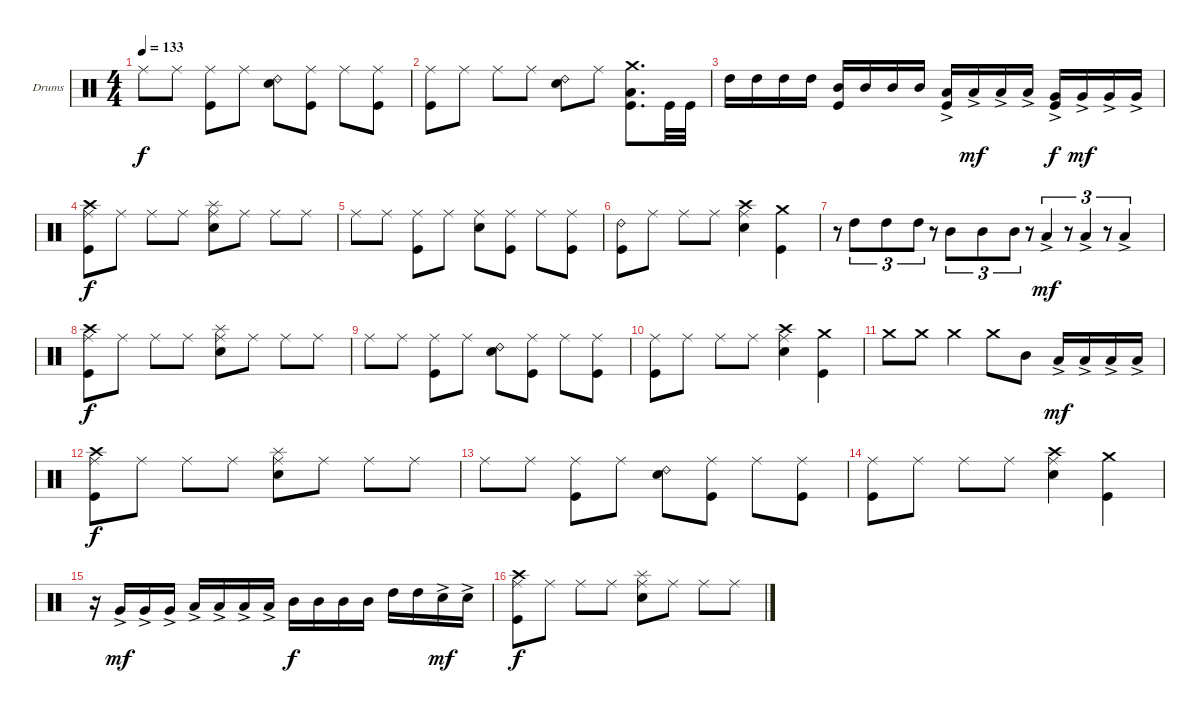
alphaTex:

\bracketExtendMode groupsimilarinstruments
\firstSystemTrackNameOrientation horizontal
\otherSystemsTrackNameOrientation horizontal
\track ("Drumkit" "Drums") {instrument percussion}
\staff {score}
\articulation defaults
\ts (4 4)
\tempo 133
\clef neutral
\ks c "Ride (middle)".8{dy f} "Ride (middle)".8
("Ride (middle)" "Kick (hit)").8 "Ride (middle)".8 ("Ride (bell) 2" "Snare (hit) 2").8 ("Ride (middle)" "Kick (hit)").8 "Ride (middle)".8 ("Ride (middle)" "Kick (hit)").8 |
("Ride (middle)" "Kick (hit)").8 "Ride (middle)".8 "Ride (middle)".8 "Ride (middle)".8 ("Ride (bell) 2" "Snare (hit) 2").8 "Ride (middle)".8 ("Kick (hit)" "Low Tom (hit)" "Crash medium (hit)").8{d} "Kick (hit)".32 "Kick (hit)".32 |
"High Tom (hit)".16 "High Tom (hit)".16 "High Tom (hit)".16 "High Tom (hit)".16 ("Mid Tom (hit)" "Kick (hit)").16 "Mid Tom (hit)".16 "Mid Tom (hit)".16 "Mid Tom (hit)".16 ("Low Tom (hit)"{ac} "Kick (hit)").16 "Low Tom (hit)"{ac}.16{dy mf} "Low Tom (hit)"{ac}.16 "Low Tom (hit)"{ac}.16 ("Very Low Tom (hit)"{ac} "Kick (hit)").16{dy f} "Very Low Tom (hit)"{ac}.16{dy mf} "Very Low Tom (hit)"{ac}.16 "Very Low Tom (hit)"{ac}.16 |
("Crash high (hit)" "Ride (middle)" "Kick (hit)").8{dy f} "Ride (middle)".8 "Ride (middle)".8 "Ride (middle)".8 ("Ride (middle)" "Splash (hit)" "Snare (hit) 2").8 "Ride (middle)".8 "Ride (middle)".8 "Ride (middle)".8 |
"Ride (middle)".8 "Ride (middle)".8 ("Ride (middle)" "Kick (hit)").8 "Ride (middle)".8 ("Ride (middle)" "Snare (hit) 2").8 ("Ride (middle)" "Kick (hit)").8 "Ride (middle)".8 ("Ride (middle)" "Kick (hit)").8 |
("Ride (bell) 2" "Kick (hit)").8 "Ride (middle)".8 "Ride (middle)".8 "Ride (middle)".8 ("Ride (middle)" "Snare (hit) 2" "Crash high (hit)").4 ("Kick (hit)" "Crash medium (hit)").4 |
r.8{gr} "High Tom (hit)".8{tu (3 2)} "High Tom (hit)".8{tu (3 2)} "High Tom (hit)".8{tu (3 2)} r.8{gr} "Mid Tom (hit)".8{tu (3 2)} "Mid Tom (hit)".8{tu (3 2)} "Mid Tom (hit)".8{tu (3 2)} r.8{gr} "Low Tom (hit)"{ac}.4{tu (3 2) dy mf} r.8{gr} "Low Tom (hit)"{ac}.4{tu (3 2)} r.8{gr} "Low Tom (hit)"{ac}.4{tu (3 2)} |
("Crash high (hit)" "Ride (middle)" "Kick (hit)").8{dy f} "Ride (middle)".8 "Ride (middle)".8 "Ride (middle)".8 ("Ride (middle)" "Splash (hit)" "Snare (hit) 2").8 "Ride (middle)".8 "Ride (middle)".8 "Ride (middle)".8 |
"Ride (middle)".8 "Ride (middle)".8 ("Ride (middle)" "Kick (hit)").8 "Ride (middle)".8 ("Ride (bell) 2" "Snare (hit) 2").8 ("Ride (middle)" "Kick (hit)").8 "Ride (middle)".8 ("Ride (middle)" "Kick (hit)").8 |
("Ride (middle)" "Kick (hit)").8 "Ride (middle)".8 "Ride (middle)".8 "Ride (middle)".8 ("Snare (hit) 2" "Ride (middle)" "Crash high (hit)").4 ("Kick (hit)" "Crash medium (hit)").4 |
"Crash medium (hit)".8 "Crash medium (hit)".8 "Crash medium (hit)".4 "Crash medium (hit)".8 "Mid Tom (hit)".8 "Low Tom (hit)"{ac}.16{dy mf} "Low Tom (hit)"{ac}.16 "Low Tom (hit)"{ac}.16 "Low Tom (hit)"{ac}.16 |
("Crash high (hit)" "Ride (middle)" "Kick (hit)").8{dy f} "Ride (middle)".8 "Ride (middle)".8 "Ride (middle)".8 ("Ride (middle)" "Splash (hit)" "Snare (hit) 2").8 "Ride (middle)".8 "Ride (middle)".8 "Ride (middle)".8 |
"Ride (middle)".8 "Ride (middle)".8 ("Ride (middle)" "Kick (hit)").8 "Ride (middle)".8 ("Ride (bell) 2" "Snare (hit) 2").8 ("Ride (middle)" "Kick (hit)").8 "Ride (middle)".8 ("Ride (middle)" "Kick (hit)").8 |
("Ride (middle)" "Kick (hit)").8 "Ride (middle)".8 "Ride (middle)".8 "Ride (middle)".8 ("Snare (hit) 2" "Ride (middle)" "Crash high (hit)").4 ("Kick (hit)" "Crash medium (hit)").4 |
r.16 "Very Low Tom (hit)"{ac}.16{dy mf} "Very Low Tom (hit)"{ac}.16 "Very Low Tom (hit)"{ac}.16 "Low Tom (hit)"{ac}.16 "Low Tom (hit)"{ac}.16 "Low Tom (hit)"{ac}.16 "Low Tom (hit)"{ac}.16 "Mid Tom (hit)".16{dy f} "Mid Tom (hit)".16 "Mid Tom (hit)".16 "Mid Tom (hit)".16 "High Tom (hit)".16 "High Tom (hit)".16 "Snare (hit) 2"{ac}.16{dy mf} "Snare (hit) 2"{ac}.16 |
("Crash high (hit)" "Ride (middle)" "Kick (hit)").8{dy f} "Ride (middle)".8 "Ride (middle)".8 "Ride (middle)".8 ("Ride (middle)" "Splash (hit)" "Snare (hit) 2").8 "Ride (middle)".8 "Ride (middle)".8 "Ride (middle)".8
